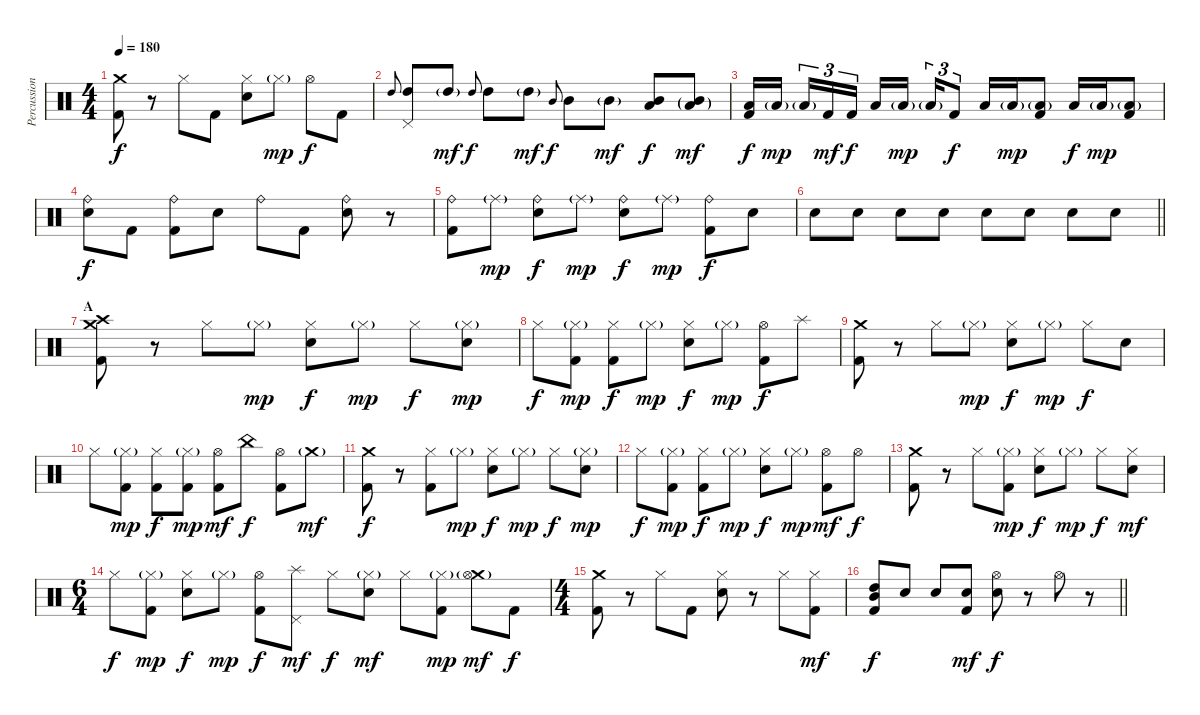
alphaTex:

\track ("Percussion" "Percussion") {instrument percussion}
\staff {score}
\articulation defaults
\ts (4 4)
\tempo 180
\clef neutral
\ks c
("Crash medium (hit)" "Kick (hit) 2").8{dy f} r.8 "Hi-Hat (closed)".8 "Kick (hit) 2".8 ("Hi-Hat (closed)" "Snare (hit) 2").8 "Hi-Hat (closed)"{g}.8{dy mp} "Hi-Hat (open)".8{dy f} "Kick (hit) 2".8 |
"High Tom (hit)".8{gr onbeat} ("Pedal Hi-Hat (hit)" "High Tom (hit)").8 "High Tom (hit)"{g}.8{dy mf} "High Tom (hit)".8{gr onbeat dy f} "High Tom (hit)".8 "High Tom (hit)"{g}.8{dy mf} "Mid Tom (hit)".8{gr onbeat dy f} "Mid Tom (hit)".8 "Mid Tom (hit)"{g}.8{dy mf} ("Mid Tom (hit)" "Low Tom (hit)").8{bu 60 dy f} ("Mid Tom (hit)"{g} "Low Tom (hit)"{g}).8{dy mf} |
("Low Tom (hit)" "Kick (hit) 2").16{dy f} "Low Tom (hit)"{g}.16{dy mp beam splitsecondary} "Low Tom (hit)"{g}.16{tu (3 2)} "Kick (hit) 2".16{tu (3 2) dy mf} "Kick (hit) 2".16{tu (3 2) dy f} "Low Tom (hit)".16 "Low Tom (hit)"{g}.16{dy mp beam splitsecondary} "Low Tom (hit)"{g}.16{tu (3 2)} "Kick (hit) 2".8{tu (3 2) dy f} "Low Tom (hit)".16 "Low Tom (hit)"{g}.16{dy mp} ("Low Tom (hit)"{g} "Kick (hit) 2").8 "Low Tom (hit)".16{dy f} "Low Tom (hit)"{g}.16{dy mp} ("Low Tom (hit)"{g} "Kick (hit) 2").8 |
("Ride (bell)" "Snare (hit) 2").8{dy f} "Kick (hit) 2".8 ("Ride (bell)" "Kick (hit) 2").8 "Snare (hit) 2".8 "Ride (bell)".8 "Kick (hit) 2".8 ("Ride (bell)" "Snare (hit) 2").8 r.8 |
("Ride (bell)" "Kick (hit) 2").8 "Ride (middle)"{g}.8{dy mp} ("Ride (bell)" "Snare (hit) 2").8{dy f} "Ride (middle)"{g}.8{dy mp} ("Ride (bell)" "Snare (hit) 2").8{dy f} "Ride (middle)"{g}.8{dy mp} ("Ride (bell)" "Kick (hit) 2").8{dy f} "Snare (hit) 2".8 |
\barLineRight lightlight "Snare (hit) 2".8 "Snare (hit) 2".8 "Snare (hit) 2".8 "Snare (hit) 2".8 "Snare (hit) 2".8 "Snare (hit) 2".8 "Snare (hit) 2".8 "Snare (hit) 2".8
|
\section ("" "A")
("Crash high (hit)" "Crash medium (hit)" "Kick (hit) 2").8 r.8 "Hi-Hat (closed)".8 "Hi-Hat (closed)"{g}.8{dy mp} ("Hi-Hat (closed)" "Snare (hit) 2").8{dy f} "Hi-Hat (closed)"{g}.8{dy mp} "Hi-Hat (closed)".8{dy f} ("Hi-Hat (closed)"{g} "Snare (hit) 2").8{dy mp} |
"Hi-Hat (closed)".8{dy f} ("Hi-Hat (closed)"{g} "Kick (hit) 2").8{dy mp} ("Hi-Hat (closed)" "Kick (hit) 2").8{dy f} "Hi-Hat (closed)"{g}.8{dy mp} ("Hi-Hat (closed)" "Snare (hit) 2").8{dy f} "Hi-Hat (closed)"{g}.8{dy mp} ("Hi-Hat (open)" "Kick (hit) 2").8{dy f} "Splash (hit)".8 |
("Crash medium (hit)" "Kick (hit) 2").8 r.8 "Hi-Hat (closed)".8 "Hi-Hat (closed)"{g}.8{dy mp} ("Hi-Hat (closed)" "Snare (hit) 2").8{dy f} "Hi-Hat (closed)"{g}.8{dy mp} "Hi-Hat (closed)".8{dy f} "Snare (hit) 2".8 |
"Hi-Hat (closed)".8 ("Hi-Hat (closed)"{g} "Kick (hit) 2").8{dy mp} ("Hi-Hat (closed)" "Kick (hit) 2").8{dy f} ("Hi-Hat (closed)"{g} "Kick (hit) 2").8{dy mp} ("Hi-Hat (open)" "Kick (hit) 2").8{dy mf} "China (hit)".8{dy f} ("Hi-Hat (open)" "Kick (hit) 2").8 "Crash medium (hit)"{g}.8{dy mf} |
("Crash medium (hit)" "Kick (hit) 2").8{dy f} r.8 ("Hi-Hat (closed)" "Kick (hit) 2").8 "Hi-Hat (closed)"{g}.8{dy mp} ("Hi-Hat (closed)" "Snare (hit) 2").8{dy f} "Hi-Hat (closed)"{g}.8{dy mp} "Hi-Hat (closed)".8{dy f} ("Hi-Hat (closed)"{g} "Snare (hit) 2").8{dy mp} |
"Hi-Hat (closed)".8{dy f} ("Hi-Hat (closed)"{g} "Kick (hit) 2").8{dy mp} ("Hi-Hat (closed)" "Kick (hit) 2").8{dy f} "Hi-Hat (closed)"{g}.8{dy mp} ("Hi-Hat (closed)" "Snare (hit) 2").8{dy f} "Hi-Hat (closed)"{g}.8{dy mp} ("Hi-Hat (open)" "Kick (hit) 2").8{dy mf} "Hi-Hat (open)".8{dy f} |
("Crash medium (hit)" "Kick (hit) 2").8 r.8 "Hi-Hat (closed)".8 ("Hi-Hat (closed)"{g} "Kick (hit) 2").8{dy mp} ("Hi-Hat (closed)" "Snare (hit) 2").8{dy f} "Hi-Hat (closed)"{g}.8{dy mp} "Hi-Hat (closed)".8{dy f} ("Hi-Hat (closed)" "Snare (hit) 2").8{dy mf} |
\ts (6 4)
"Hi-Hat (closed)".8{dy f} ("Hi-Hat (closed)"{g} "Kick (hit) 2").8{dy mp} ("Hi-Hat (closed)" "Snare (hit) 2").8{dy f} "Hi-Hat (closed)"{g}.8{dy mp} ("Hi-Hat (open)" "Kick (hit) 2").8{dy f} ("Splash (hit)" "Pedal Hi-Hat (hit)").8{dy mf} "Hi-Hat (closed)".8{dy f} ("Hi-Hat (closed)"{g} "Snare (hit) 2").8{dy mf} "Hi-Hat (closed)".8 ("Hi-Hat (closed)"{g} "Kick (hit) 2").8{dy mp} ("Crash medium (hit)"{g} "Hi-Hat (open)").8{dy mf} "Kick (hit) 2".8{dy f} |
\ts (4 4)
("Crash medium (hit)" "Kick (hit) 2").8 r.8 "Hi-Hat (closed)".8 "Kick (hit) 2".8 ("Hi-Hat (closed)" "Snare (hit) 2").8 r.8 "Hi-Hat (closed)".8 ("Hi-Hat (closed)" "Kick (hit) 2").8{dy mf} |
\barLineRight lightlight
("High Tom (hit)" "Mid Tom (hit)" "Kick (hit) 2").8{bu 60 dy f} "Snare (hit) 2".8 "Snare (hit) 2".8 ("Snare (hit) 2" "Kick (hit) 2").8{dy mf} ("Hi-Hat (open)" "Snare (hit) 2").8{dy f} r.8 "Hi-Hat (open)".8 r.8
